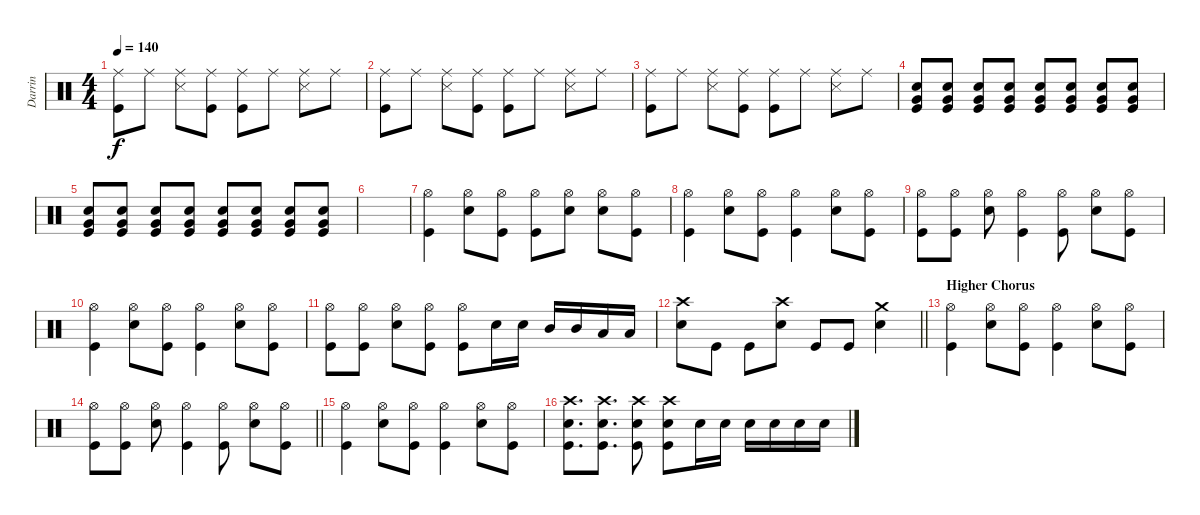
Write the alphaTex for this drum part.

\track ("Darrin" "Darrin") {instrument percussion}
\staff {score}
\articulation defaults
\ts (4 4)
\tempo 140
\clef neutral
\ks c
("Ride (middle)" "Kick (hit)").8{dy f} "Ride (middle)".8 ("Ride (middle)" "Metronome (hit)").8 ("Ride (middle)" "Kick (hit)").8 ("Ride (middle)" "Kick (hit)").8 "Ride (middle)".8 ("Ride (middle)" "Metronome (hit)").8 "Ride (middle)".8 |
("Ride (middle)" "Kick (hit)").8 "Ride (middle)".8 ("Ride (middle)" "Metronome (hit)").8 ("Ride (middle)" "Kick (hit)").8 ("Ride (middle)" "Kick (hit)").8 "Ride (middle)".8 ("Ride (middle)" "Metronome (hit)").8 "Ride (middle)".8 |
("Ride (middle)" "Kick (hit)").8 "Ride (middle)".8 ("Ride (middle)" "Metronome (hit)").8 ("Ride (middle)" "Kick (hit)").8 ("Ride (middle)" "Kick (hit)").8 "Ride (middle)".8 ("Ride (middle)" "Metronome (hit)").8 "Ride (middle)".8 |
("Snare (hit) 2" "Very Low Tom (hit)" "Kick (hit)").8 ("Snare (hit) 2" "Very Low Tom (hit)" "Kick (hit)").8 ("Snare (hit) 2" "Very Low Tom (hit)" "Kick (hit)").8 ("Snare (hit) 2" "Very Low Tom (hit)" "Kick (hit)").8 ("Snare (hit) 2" "Very Low Tom (hit)" "Kick (hit)").8 ("Snare (hit) 2" "Very Low Tom (hit)" "Kick (hit)").8 ("Snare (hit) 2" "Very Low Tom (hit)" "Kick (hit)").8 ("Snare (hit) 2" "Very Low Tom (hit)" "Kick (hit)").8 |
("Snare (hit) 2" "Very Low Tom (hit)" "Kick (hit)").8 ("Snare (hit) 2" "Very Low Tom (hit)" "Kick (hit)").8 ("Snare (hit) 2" "Very Low Tom (hit)" "Kick (hit)").8 ("Snare (hit) 2" "Very Low Tom (hit)" "Kick (hit)").8 ("Snare (hit) 2" "Very Low Tom (hit)" "Kick (hit)").8 ("Snare (hit) 2" "Very Low Tom (hit)" "Kick (hit)").8 ("Snare (hit) 2" "Very Low Tom (hit)" "Kick (hit)").8 ("Snare (hit) 2" "Very Low Tom (hit)" "Kick (hit)").8 |
|
("Hi-Hat (open)" "Kick (hit)").4 ("Hi-Hat (open)" "Snare (hit) 2").8 ("Hi-Hat (open)" "Kick (hit)").8 ("Hi-Hat (open)" "Kick (hit)").8 ("Hi-Hat (open)" "Snare (hit) 2").8 ("Hi-Hat (open)" "Snare (hit) 2").8 ("Hi-Hat (open)" "Kick (hit)").8 |
("Hi-Hat (open)" "Kick (hit)").4 ("Hi-Hat (open)" "Snare (hit) 2").8 ("Hi-Hat (open)" "Kick (hit)").8 ("Hi-Hat (open)" "Kick (hit)").4 ("Hi-Hat (open)" "Snare (hit) 2").8 ("Hi-Hat (open)" "Kick (hit)").8 |
("Hi-Hat (open)" "Kick (hit)").8 ("Hi-Hat (open)" "Kick (hit)").8 ("Hi-Hat (open)" "Snare (hit) 2").8 ("Hi-Hat (open)" "Kick (hit)").4 ("Hi-Hat (open)" "Kick (hit)").8 ("Hi-Hat (open)" "Snare (hit) 2").8 ("Hi-Hat (open)" "Kick (hit)").8 |
("Hi-Hat (open)" "Kick (hit)").4 ("Hi-Hat (open)" "Snare (hit) 2").8 ("Hi-Hat (open)" "Kick (hit)").8 ("Hi-Hat (open)" "Kick (hit)").4 ("Hi-Hat (open)" "Snare (hit) 2").8 ("Hi-Hat (open)" "Kick (hit)").8 |
("Hi-Hat (open)" "Kick (hit)").8 ("Hi-Hat (open)" "Kick (hit)").8 ("Hi-Hat (open)" "Snare (hit) 2").8 ("Hi-Hat (open)" "Kick (hit)").8 ("Hi-Hat (open)" "Kick (hit)").8 "Snare (hit) 2".16 "Snare (hit) 2".16 "Mid Tom (hit)".16 "Mid Tom (hit)".16 "Low Tom (hit)".16 "Low Tom (hit)".16 |
\barLineRight lightlight
("Crash high (hit)" "Snare (hit) 2").8 "Kick (hit)".8 "Kick (hit)".8 ("Crash high (hit)" "Snare (hit) 2").8 "Kick (hit)".8 "Kick (hit)".8 ("Crash medium (hit)" "Snare (hit) 2").4 |
\section ("" "Higher Chorus")
("Hi-Hat (open)" "Kick (hit)").4 ("Hi-Hat (open)" "Snare (hit) 2").8 ("Hi-Hat (open)" "Kick (hit)").8 ("Hi-Hat (open)" "Kick (hit)").4 ("Hi-Hat (open)" "Snare (hit) 2").8 ("Hi-Hat (open)" "Kick (hit)").8 |
\barLineRight lightlight
("Hi-Hat (open)" "Kick (hit)").8 ("Hi-Hat (open)" "Kick (hit)").8 ("Hi-Hat (open)" "Snare (hit) 2").8 ("Hi-Hat (open)" "Kick (hit)").4 ("Hi-Hat (open)" "Kick (hit)").8 ("Hi-Hat (open)" "Snare (hit) 2").8 ("Hi-Hat (open)" "Kick (hit)").8 |
("Hi-Hat (open)" "Kick (hit)").4 ("Hi-Hat (open)" "Snare (hit) 2").8 ("Hi-Hat (open)" "Kick (hit)").8 ("Hi-Hat (open)" "Kick (hit)").4 ("Hi-Hat (open)" "Snare (hit) 2").8 ("Hi-Hat (open)" "Kick (hit)").8 |
("Crash high (hit)" "Snare (hit) 2" "Kick (hit)").8{d} ("Crash high (hit)" "Snare (hit) 2" "Kick (hit)").8{d} ("Crash high (hit)" "Snare (hit) 2" "Kick (hit)").8 ("Crash high (hit)" "Snare (hit) 2" "Kick (hit)").8 "Snare (hit) 2".16 "Snare (hit) 2".16 "Snare (hit) 2".16 "Snare (hit) 2".16 "Snare (hit) 2".16 "Snare (hit) 2".16
